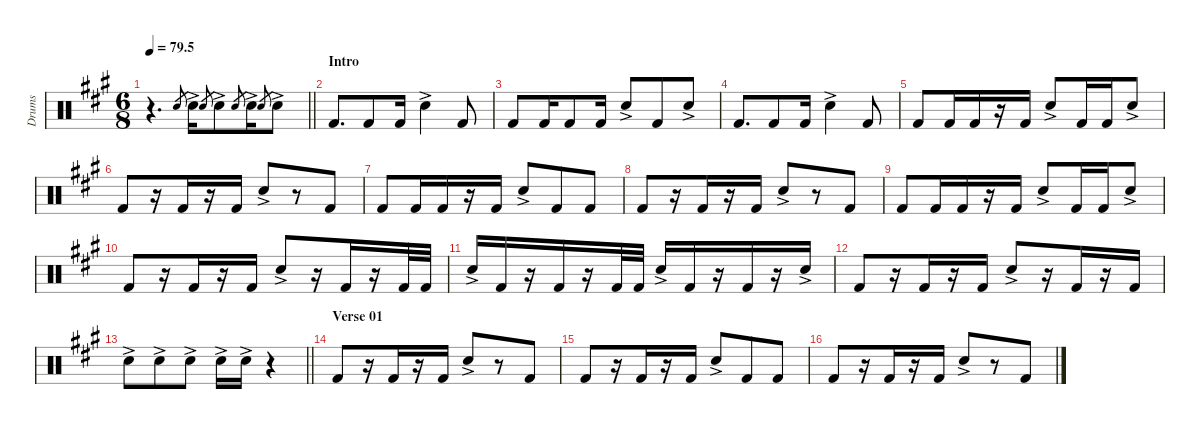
\defaultSystemsLayout 4
\hideDynamics
\bracketExtendMode nobrackets
\otherSystemsTrackNameOrientation horizontal
\track ("F&S" "Drums") {instrument percussion}
\staff {score}
\articulation defaults
\ts (6 8)
\tempo
79.5
\accidentals auto
\clef neutral
\ottava regular
\simile none
\scale
0.474178
\barLineRight lightlight
\ks a
r.4{d dy mp} "Snare (hit) 2"{acc forcenatural}.8{gr} "Snare (hit) 2"{ac acc forcenatural}.16{dy f} "Snare (hit) 2"{acc forcenatural}.8{gr dy mp} "Snare (hit) 2"{ac acc forcenatural}.8{dy f} "Snare (hit) 2"{acc forcenatural}.8{gr dy mp} "Snare (hit) 2"{ac acc forcenatural}.16{dy f} "Snare (hit) 2"{acc forcenatural}.8{gr dy mp} "Snare (hit) 2"{ac acc forcenatural}.8{dy f} |
\section ("" "Intro")
\scale
0.262911 "Kick (hit) 2"{acc forcenatural}.8{d} "Kick (hit) 2"{acc forcenatural}.8 "Kick (hit) 2"{acc forcenatural}.16 "Snare (hit) 2"{ac acc forcenatural}.4 "Kick (hit) 2"{acc forcenatural}.8 |
\scale
0.262911 "Kick (hit) 2"{acc forcenatural}.8 "Kick (hit) 2"{acc forcenatural}.16 "Kick (hit) 2"{acc forcenatural}.8 "Kick (hit) 2"{acc forcenatural}.16 "Snare (hit) 2"{ac acc forcenatural}.8 "Kick (hit) 2"{acc forcenatural}.8 "Snare (hit) 2"{ac acc forcenatural}.8 |
\scale
0.333333 "Kick (hit) 2"{acc forcenatural}.8{d} "Kick (hit) 2"{acc forcenatural}.8 "Kick (hit) 2"{acc forcenatural}.16 "Snare (hit) 2"{ac acc forcenatural}.4 "Kick (hit) 2"{acc forcenatural}.8 |
\scale
0.333333 "Kick (hit) 2"{acc forcenatural}.8 "Kick (hit) 2"{acc forcenatural}.16 "Kick (hit) 2"{acc forcenatural}.16 r.16 "Kick (hit) 2"{acc forcenatural}.16 "Snare (hit) 2"{ac acc forcenatural}.8 "Kick (hit) 2"{acc forcenatural}.16 "Kick (hit) 2"{acc forcenatural}.16 "Snare (hit) 2"{ac acc forcenatural}.8 |
\scale
0.333333 "Kick (hit) 2"{acc forcenatural}.8 r.16 "Kick (hit) 2"{acc forcenatural}.16 r.16 "Kick (hit) 2"{acc forcenatural}.16 "Snare (hit) 2"{ac acc forcenatural}.8 r.8 "Kick (hit) 2"{acc forcenatural}.8 |
\scale
0.333333 "Kick (hit) 2"{acc forcenatural}.8 "Kick (hit) 2"{acc forcenatural}.16 "Kick (hit) 2"{acc forcenatural}.16 r.16 "Kick (hit) 2"{acc forcenatural}.16 "Snare (hit) 2"{ac acc forcenatural}.8 "Kick (hit) 2"{acc forcenatural}.8 "Kick (hit) 2"{acc forcenatural}.8 |
\scale
0.333333 "Kick (hit) 2"{acc forcenatural}.8 r.16 "Kick (hit) 2"{acc forcenatural}.16 r.16 "Kick (hit) 2"{acc forcenatural}.16 "Snare (hit) 2"{ac acc forcenatural}.8 r.8 "Kick (hit) 2"{acc forcenatural}.8 |
\scale
0.333333 "Kick (hit) 2"{acc forcenatural}.8 "Kick (hit) 2"{acc forcenatural}.16 "Kick (hit) 2"{acc forcenatural}.16 r.16 "Kick (hit) 2"{acc forcenatural}.16 "Snare (hit) 2"{ac acc forcenatural}.8 "Kick (hit) 2"{acc forcenatural}.16 "Kick (hit) 2"{acc forcenatural}.16 "Snare (hit) 2"{ac acc forcenatural}.8 |
\scale
0.333333 "Kick (hit) 2"{acc forcenatural}.8 r.16 "Kick (hit) 2"{acc forcenatural}.16 r.16 "Kick (hit) 2"{acc forcenatural}.16 "Snare (hit) 2"{ac acc forcenatural}.8 r.16 "Kick (hit) 2"{acc forcenatural}.16 r.16 "Kick (hit) 2"{acc forcenatural}.32 "Kick (hit) 2"{acc forcenatural}.32 |
\scale
0.333333 "Snare (hit) 2"{ac acc forcenatural}.16 "Kick (hit) 2"{acc forcenatural}.16 r.16 "Kick (hit) 2"{acc forcenatural}.16 r.16 "Kick (hit) 2"{acc forcenatural}.32 "Kick (hit) 2"{acc forcenatural}.32 "Snare (hit) 2"{ac acc forcenatural}.16 "Kick (hit) 2"{acc forcenatural}.16 r.16 "Kick (hit) 2"{acc forcenatural}.16 r.16 "Snare (hit) 2"{ac acc forcenatural}.16 |
\scale
0.333333 "Kick (hit) 2"{acc forcenatural}.8 r.16 "Kick (hit) 2"{acc forcenatural}.16 r.16 "Kick (hit) 2"{acc forcenatural}.16 "Snare (hit) 2"{ac acc forcenatural}.8 r.16 "Kick (hit) 2"{acc forcenatural}.16 r.16 "Kick (hit) 2"{acc forcenatural}.16 |
\scale
0.333333
\barLineRight lightlight "Snare (hit) 2"{ac acc forcenatural}.8 "Snare (hit) 2"{ac acc forcenatural}.8 "Snare (hit) 2"{ac acc forcenatural}.8 "Snare (hit) 2"{ac acc forcenatural}.16 "Snare (hit) 2"{ac acc forcenatural}.16
r.4 |
\section ("" "Verse 01")
\scale
0.333333 "Kick (hit) 2"{acc forcenatural}.8 r.16 "Kick (hit) 2"{acc forcenatural}.16 r.16 "Kick (hit) 2"{acc forcenatural}.16 "Snare (hit) 2"{ac acc forcenatural}.8 r.8 "Kick (hit) 2"{acc forcenatural}.8 |
\scale
0.333333 "Kick (hit) 2"{acc forcenatural}.8 r.16 "Kick (hit) 2"{acc forcenatural}.16 r.16 "Kick (hit) 2"{acc forcenatural}.16 "Snare (hit) 2"{ac acc forcenatural}.8 "Kick (hit) 2"{acc forcenatural}.8 "Kick (hit) 2"{acc forcenatural}.8 |
\scale
0.333333 "Kick (hit) 2"{acc forcenatural}.8 r.16 "Kick (hit) 2"{acc forcenatural}.16 r.16 "Kick (hit) 2"{acc forcenatural}.16 "Snare (hit) 2"{ac acc forcenatural}.8 r.8 "Kick (hit) 2"{acc forcenatural}.8
